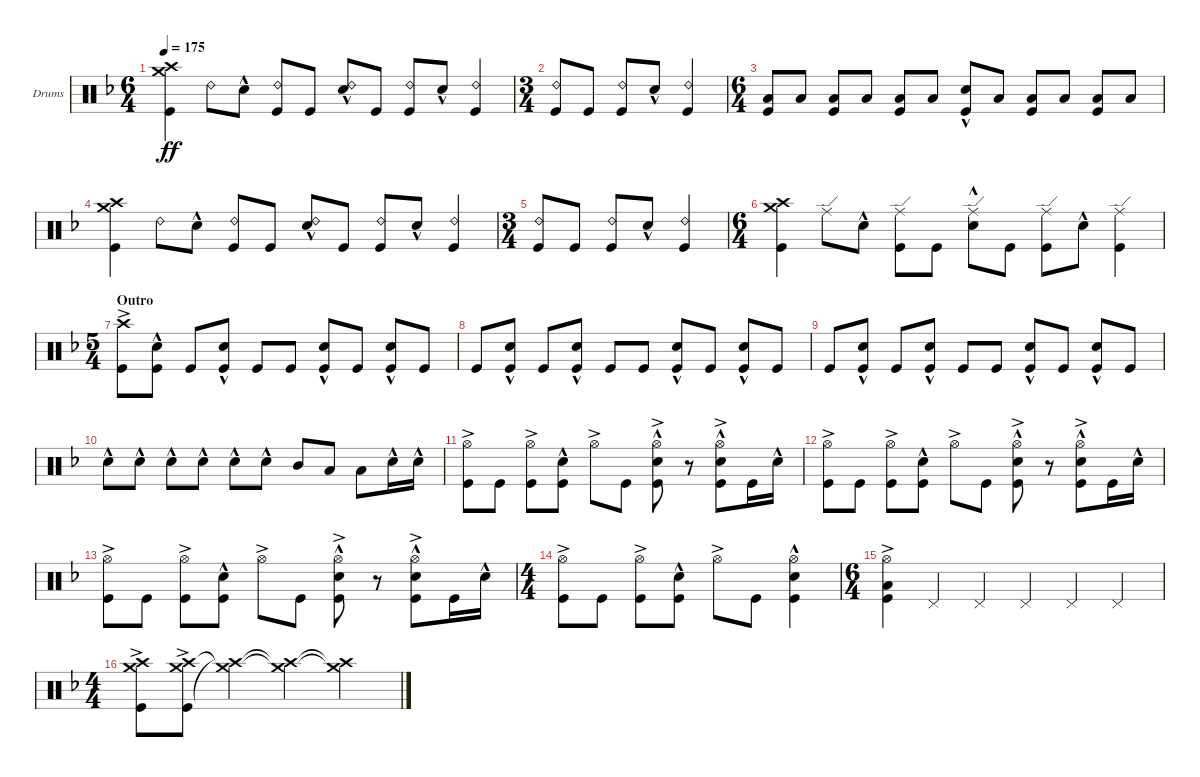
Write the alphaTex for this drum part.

\defaultSystemsLayout 4
\bracketExtendMode groupsimilarinstruments
\firstSystemTrackNameOrientation horizontal
\otherSystemsTrackNameOrientation horizontal
\track ("Drumkit" "Drums") {instrument percussion}
\staff {score}
\articulation defaults
\ts (6 4)
\tempo 175
\clef neutral
\ks f
("Kick (hit)" "Crash high (hit)" "Crash medium (hit)").4{dy ff} "Ride (bell) 2".8 "Snare (hit) 2"{hac}.8 ("Ride (bell) 2" "Kick (hit)").8 "Kick (hit)".8 ("Ride (bell) 2" "Snare (hit) 2"{hac}).8 "Kick (hit)".8 ("Ride (bell) 2" "Kick (hit)").8 "Snare (hit) 2"{hac}.8 ("Ride (bell) 2" "Kick (hit)").4 |
\ts (3 4)
("Kick (hit)" "Ride (bell) 2").8 "Kick (hit)".8 ("Kick (hit)" "Ride (bell) 2").8 "Snare (hit) 2"{hac}.8 ("Kick (hit)" "Ride (bell) 2").4 |
\ts (6 4)
("Low Tom (hit)" "Kick (hit)").8 "Low Tom (hit)".8 ("Kick (hit)" "Low Tom (hit)").8 "Low Tom (hit)".8 ("Kick (hit)" "Low Tom (hit)").8 "Low Tom (hit)".8 ("Kick (hit)" "Snare (hit) 2"{hac}).8 "Low Tom (hit)".8 ("Kick (hit)" "Low Tom (hit)").8 "Low Tom (hit)".8 ("Kick (hit)" "Low Tom (hit)").8 "Low Tom (hit)".8 |
("Kick (hit)" "Crash high (hit)" "Crash medium (hit)").4 "Ride (bell) 2".8 "Snare (hit) 2"{hac}.8 ("Ride (bell) 2" "Kick (hit)").8 "Kick (hit)".8 ("Ride (bell) 2" "Snare (hit) 2"{hac}).8 "Kick (hit)".8 ("Ride (bell) 2" "Kick (hit)").8 "Snare (hit) 2"{hac}.8 ("Ride (bell) 2" "Kick (hit)").4 |
\ts (3 4)
("Kick (hit)" "Ride (bell) 2").8 "Kick (hit)".8 ("Kick (hit)" "Ride (bell) 2").8 "Snare (hit) 2"{hac}.8 ("Kick (hit)" "Ride (bell) 2").4 |
\ts (6 4)
("Kick (hit)" "Crash high (hit)" "Crash medium (hit)").4 "Ride (edge)".8 "Snare (hit) 2"{hac}.8 ("Ride (edge)" "Kick (hit)").8 "Kick (hit)".8 ("Ride (edge)" "Snare (hit) 2"{hac}).8 "Kick (hit)".8 ("Ride (edge)" "Kick (hit)").8 "Snare (hit) 2"{hac}.8 ("Ride (edge)" "Kick (hit)").4 |
\ts (5 4)
\section ("" "Outro")
("Kick (hit)" "Crash high (hit)"{ac}).8 ("Kick (hit)" "Snare (hit) 2"{hac}).8 "Kick (hit)".8 ("Kick (hit)" "Snare (hit) 2"{hac}).8 "Kick (hit)".8 "Kick (hit)".8 ("Kick (hit)" "Snare (hit) 2"{hac}).8 "Kick (hit)".8 ("Kick (hit)" "Snare (hit) 2"{hac}).8 "Kick (hit)".8 |
"Kick (hit)".8 ("Kick (hit)" "Snare (hit) 2"{hac}).8 "Kick (hit)".8 ("Kick (hit)" "Snare (hit) 2"{hac}).8 "Kick (hit)".8 "Kick (hit)".8 ("Kick (hit)" "Snare (hit) 2"{hac}).8 "Kick (hit)".8 ("Kick (hit)" "Snare (hit) 2"{hac}).8 "Kick (hit)".8 |
"Kick (hit)".8 ("Kick (hit)" "Snare (hit) 2"{hac}).8 "Kick (hit)".8 ("Kick (hit)" "Snare (hit) 2"{hac}).8 "Kick (hit)".8 "Kick (hit)".8 ("Kick (hit)" "Snare (hit) 2"{hac}).8 "Kick (hit)".8 ("Kick (hit)" "Snare (hit) 2"{hac}).8 "Kick (hit)".8 |
"Snare (hit) 2"{hac}.8 "Snare (hit) 2"{hac}.8 "Snare (hit) 2"{hac}.8 "Snare (hit) 2"{hac}.8 "Snare (hit) 2"{hac}.8 "Snare (hit) 2"{hac}.8 "Mid Tom (hit)".8 "Low Tom (hit)".8 "Low Tom (hit)".8 "Snare (hit) 2"{hac}.16 "Snare (hit) 2"{hac}.16 |
("Kick (hit)" "Hi-Hat (open)"{ac}).8 "Kick (hit)".8 ("Kick (hit)" "Hi-Hat (open)"{ac}).8 ("Kick (hit)" "Snare (hit) 2"{hac}).8 "Hi-Hat (open)"{ac}.8 "Kick (hit)".8 ("Kick (hit)" "Snare (hit) 2"{hac} "Hi-Hat (open)"{ac}).8 r.8 ("Kick (hit)" "Snare (hit) 2"{hac} "Hi-Hat (open)"{ac}).8 "Kick (hit)".16 "Snare (hit) 2"{hac}.16 |
("Kick (hit)" "Hi-Hat (open)"{ac}).8 "Kick (hit)".8 ("Kick (hit)" "Hi-Hat (open)"{ac}).8 ("Kick (hit)" "Snare (hit) 2"{hac}).8 "Hi-Hat (open)"{ac}.8 "Kick (hit)".8 ("Kick (hit)" "Snare (hit) 2"{hac} "Hi-Hat (open)"{ac}).8 r.8 ("Kick (hit)" "Snare (hit) 2"{hac} "Hi-Hat (open)"{ac}).8 "Kick (hit)".16 "Snare (hit) 2"{hac}.16 |
("Kick (hit)" "Hi-Hat (open)"{ac}).8 "Kick (hit)".8 ("Kick (hit)" "Hi-Hat (open)"{ac}).8 ("Kick (hit)" "Snare (hit) 2"{hac}).8 "Hi-Hat (open)"{ac}.8 "Kick (hit)".8 ("Kick (hit)" "Snare (hit) 2"{hac} "Hi-Hat (open)"{ac}).8 r.8 ("Kick (hit)" "Snare (hit) 2"{hac} "Hi-Hat (open)"{ac}).8 "Kick (hit)".16 "Snare (hit) 2"{hac}.16 |
\ts (4 4)
("Kick (hit)" "Hi-Hat (open)"{ac}).8 "Kick (hit)".8 ("Kick (hit)" "Hi-Hat (open)"{ac}).8 ("Kick (hit)" "Snare (hit) 2"{hac}).8 "Hi-Hat (open)"{ac}.8 "Kick (hit)".8 ("Kick (hit)" "Snare (hit) 2"{hac} "Hi-Hat (open)").4 |
\ts (6 4)
("Kick (hit)" "Low Tom (hit)" "Hi-Hat (open)"{ac}).4 "Pedal Hi-Hat (hit)".4 "Pedal Hi-Hat (hit)".4 "Pedal Hi-Hat (hit)".4 "Pedal Hi-Hat (hit)".4 "Pedal Hi-Hat (hit)".4 |
\ts (4 4)
("Kick (hit)"{ac} "Crash high (hit)"{ac} "Crash medium (hit)"{ac}).8 ("Kick (hit)"{ac} "Crash high (hit)"{ac} "Crash medium (hit)"{ac}).8 ("Crash high (hit)"{t} "Crash medium (hit)"{t}).4 ("Crash high (hit)"{t} "Crash medium (hit)"{t}).4 ("Crash high (hit)"{t} "Crash medium (hit)"{t}).4
